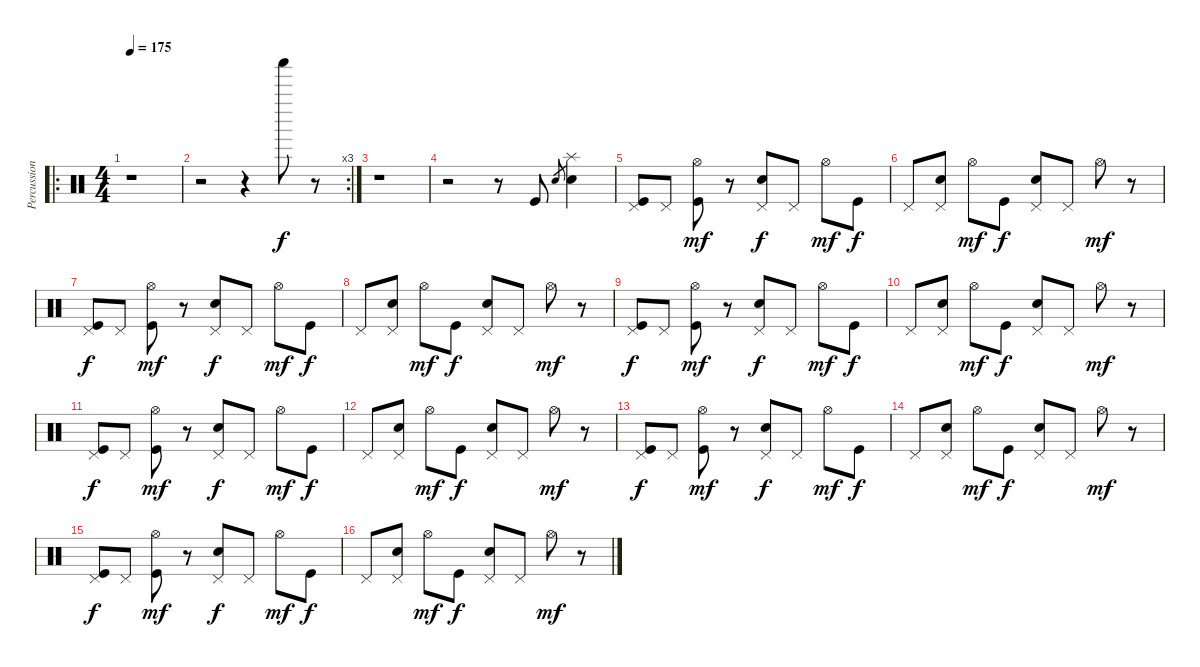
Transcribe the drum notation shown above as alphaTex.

\track ("Percussions" "Percussion") {instrument percussion}
\staff {score}
\articulation defaults
\ro
\ts (4 4)
\tempo 175
\clef neutral
\ks c
r.1{dy f} |
\rc 3
r.2 r.4 "Shaker (hit)".8 r.8 |
r.1 |
r.2 r.8 "Kick (hit)".8 "Snare (hit) 2".8{gr} ("Splash (hit)" "Snare (hit) 2").4 |
("Pedal Hi-Hat (hit)" "Kick (hit)").8 "Pedal Hi-Hat (hit)".8 ("Hi-Hat (open)" "Kick (hit)").8{dy mf} r.8 ("Pedal Hi-Hat (hit)" "Snare (hit) 2").8{dy f} "Pedal Hi-Hat (hit)".8 "Hi-Hat (open)".8{dy mf} "Kick (hit)".8{dy f} |
"Pedal Hi-Hat (hit)".8 ("Pedal Hi-Hat (hit)" "Snare (hit) 2").8 "Hi-Hat (open)".8{dy mf} "Kick (hit)".8{dy f} ("Pedal Hi-Hat (hit)" "Snare (hit) 2").8 "Pedal Hi-Hat (hit)".8 "Hi-Hat (open)".8{dy mf} r.8 |
("Pedal Hi-Hat (hit)" "Kick (hit)").8{dy f} "Pedal Hi-Hat (hit)".8 ("Hi-Hat (open)" "Kick (hit)").8{dy mf} r.8 ("Pedal Hi-Hat (hit)" "Snare (hit) 2").8{dy f} "Pedal Hi-Hat (hit)".8 "Hi-Hat (open)".8{dy mf} "Kick (hit)".8{dy f} |
"Pedal Hi-Hat (hit)".8 ("Pedal Hi-Hat (hit)" "Snare (hit) 2").8 "Hi-Hat (open)".8{dy mf} "Kick (hit)".8{dy f} ("Pedal Hi-Hat (hit)" "Snare (hit) 2").8 "Pedal Hi-Hat (hit)".8 "Hi-Hat (open)".8{dy mf} r.8 |
("Pedal Hi-Hat (hit)" "Kick (hit)").8{dy f} "Pedal Hi-Hat (hit)".8 ("Hi-Hat (open)" "Kick (hit)").8{dy mf} r.8 ("Pedal Hi-Hat (hit)" "Snare (hit) 2").8{dy f} "Pedal Hi-Hat (hit)".8 "Hi-Hat (open)".8{dy mf} "Kick (hit)".8{dy f} |
"Pedal Hi-Hat (hit)".8 ("Pedal Hi-Hat (hit)" "Snare (hit) 2").8 "Hi-Hat (open)".8{dy mf} "Kick (hit)".8{dy f} ("Pedal Hi-Hat (hit)" "Snare (hit) 2").8 "Pedal Hi-Hat (hit)".8 "Hi-Hat (open)".8{dy mf} r.8 |
("Pedal Hi-Hat (hit)" "Kick (hit)").8{dy f} "Pedal Hi-Hat (hit)".8 ("Hi-Hat (open)" "Kick (hit)").8{dy mf} r.8 ("Pedal Hi-Hat (hit)" "Snare (hit) 2").8{dy f} "Pedal Hi-Hat (hit)".8 "Hi-Hat (open)".8{dy mf} "Kick (hit)".8{dy f} |
"Pedal Hi-Hat (hit)".8 ("Pedal Hi-Hat (hit)" "Snare (hit) 2").8 "Hi-Hat (open)".8{dy mf} "Kick (hit)".8{dy f} ("Pedal Hi-Hat (hit)" "Snare (hit) 2").8 "Pedal Hi-Hat (hit)".8 "Hi-Hat (open)".8{dy mf} r.8 |
("Pedal Hi-Hat (hit)" "Kick (hit)").8{dy f} "Pedal Hi-Hat (hit)".8 ("Hi-Hat (open)" "Kick (hit)").8{dy mf} r.8 ("Pedal Hi-Hat (hit)" "Snare (hit) 2").8{dy f} "Pedal Hi-Hat (hit)".8 "Hi-Hat (open)".8{dy mf} "Kick (hit)".8{dy f} |
"Pedal Hi-Hat (hit)".8 ("Pedal Hi-Hat (hit)" "Snare (hit) 2").8 "Hi-Hat (open)".8{dy mf} "Kick (hit)".8{dy f} ("Pedal Hi-Hat (hit)" "Snare (hit) 2").8 "Pedal Hi-Hat (hit)".8 "Hi-Hat (open)".8{dy mf} r.8 |
("Pedal Hi-Hat (hit)" "Kick (hit)").8{dy f} "Pedal Hi-Hat (hit)".8 ("Hi-Hat (open)" "Kick (hit)").8{dy mf} r.8 ("Pedal Hi-Hat (hit)" "Snare (hit) 2").8{dy f} "Pedal Hi-Hat (hit)".8 "Hi-Hat (open)".8{dy mf} "Kick (hit)".8{dy f} |
"Pedal Hi-Hat (hit)".8 ("Pedal Hi-Hat (hit)" "Snare (hit) 2").8 "Hi-Hat (open)".8{dy mf} "Kick (hit)".8{dy f} ("Pedal Hi-Hat (hit)" "Snare (hit) 2").8 "Pedal Hi-Hat (hit)".8 "Hi-Hat (open)".8{dy mf} r.8
